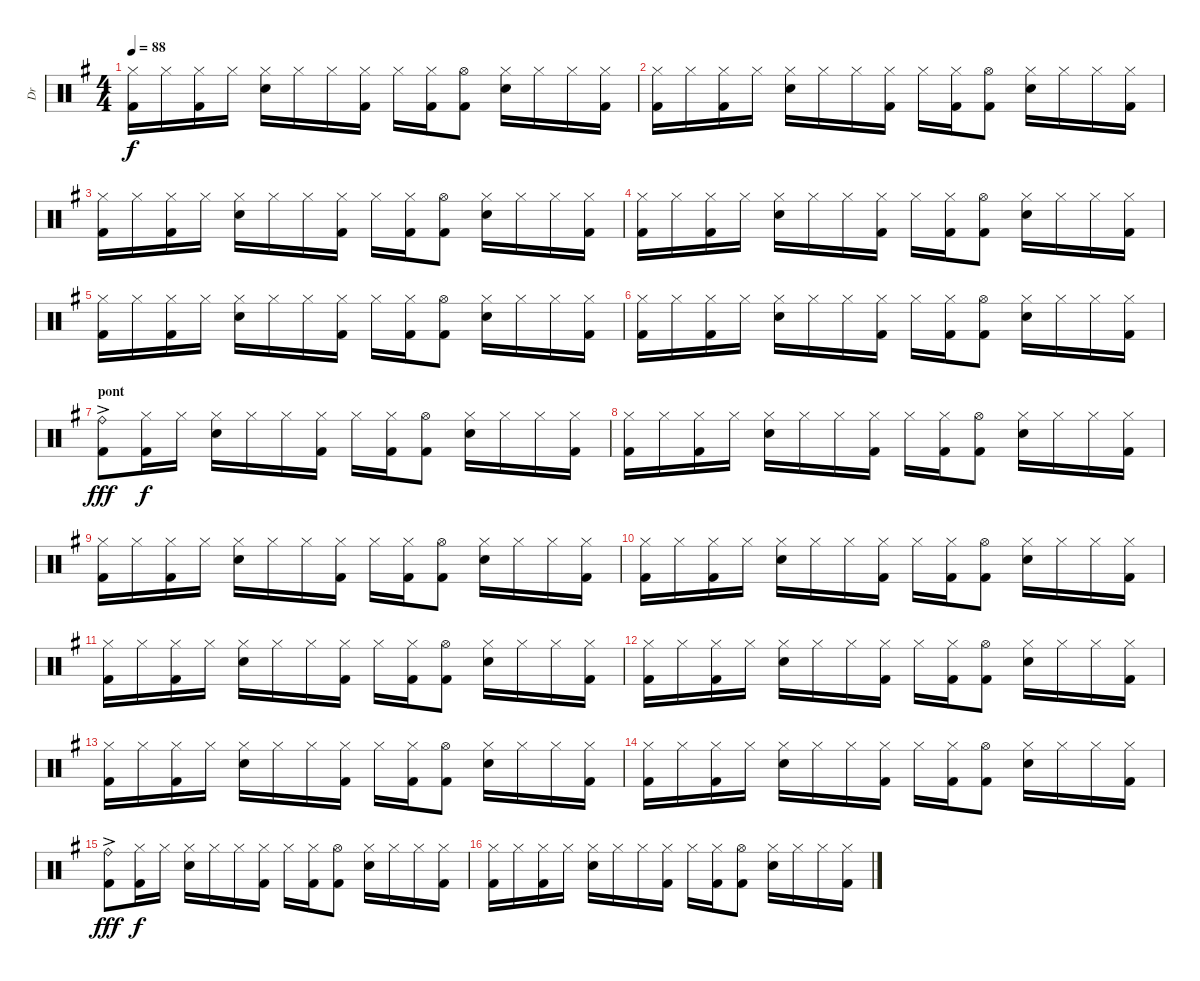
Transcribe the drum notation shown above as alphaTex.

\track ("Dr" "Dr") {instrument percussion}
\staff {score}
\articulation defaults
\ts (4 4)
\tempo 88
\clef neutral
\ks g
("Hi-Hat (closed)" "Kick (hit) 2").16{dy f} "Hi-Hat (closed)".16 ("Hi-Hat (closed)" "Kick (hit) 2").16 "Hi-Hat (closed)".16 ("Hi-Hat (closed)" "Electric Snare (hit)").16 "Hi-Hat (closed)".16 "Hi-Hat (closed)".16 ("Hi-Hat (closed)" "Kick (hit) 2").16 "Hi-Hat (closed)".16 ("Hi-Hat (closed)" "Kick (hit) 2").16 ("Hi-Hat (open)" "Kick (hit) 2").8 ("Hi-Hat (closed)" "Electric Snare (hit)").16 "Hi-Hat (closed)".16 "Hi-Hat (closed)".16 ("Hi-Hat (closed)" "Kick (hit) 2").16 |
("Hi-Hat (closed)" "Kick (hit) 2").16 "Hi-Hat (closed)".16 ("Hi-Hat (closed)" "Kick (hit) 2").16 "Hi-Hat (closed)".16 ("Hi-Hat (closed)" "Electric Snare (hit)").16 "Hi-Hat (closed)".16 "Hi-Hat (closed)".16 ("Hi-Hat (closed)" "Kick (hit) 2").16 "Hi-Hat (closed)".16 ("Hi-Hat (closed)" "Kick (hit) 2").16 ("Hi-Hat (open)" "Kick (hit) 2").8 ("Hi-Hat (closed)" "Electric Snare (hit)").16 "Hi-Hat (closed)".16 "Hi-Hat (closed)".16 ("Hi-Hat (closed)" "Kick (hit) 2").16 |
("Hi-Hat (closed)" "Kick (hit) 2").16 "Hi-Hat (closed)".16 ("Hi-Hat (closed)" "Kick (hit) 2").16 "Hi-Hat (closed)".16 ("Hi-Hat (closed)" "Electric Snare (hit)").16 "Hi-Hat (closed)".16 "Hi-Hat (closed)".16 ("Hi-Hat (closed)" "Kick (hit) 2").16 "Hi-Hat (closed)".16 ("Hi-Hat (closed)" "Kick (hit) 2").16 ("Hi-Hat (open)" "Kick (hit) 2").8 ("Hi-Hat (closed)" "Electric Snare (hit)").16 "Hi-Hat (closed)".16 "Hi-Hat (closed)".16 ("Hi-Hat (closed)" "Kick (hit) 2").16 |
("Hi-Hat (closed)" "Kick (hit) 2").16 "Hi-Hat (closed)".16 ("Hi-Hat (closed)" "Kick (hit) 2").16 "Hi-Hat (closed)".16 ("Hi-Hat (closed)" "Electric Snare (hit)").16 "Hi-Hat (closed)".16 "Hi-Hat (closed)".16 ("Hi-Hat (closed)" "Kick (hit) 2").16 "Hi-Hat (closed)".16 ("Hi-Hat (closed)" "Kick (hit) 2").16 ("Hi-Hat (open)" "Kick (hit) 2").8 ("Hi-Hat (closed)" "Electric Snare (hit)").16 "Hi-Hat (closed)".16 "Hi-Hat (closed)".16 ("Hi-Hat (closed)" "Kick (hit) 2").16 |
("Hi-Hat (closed)" "Kick (hit) 2").16 "Hi-Hat (closed)".16 ("Hi-Hat (closed)" "Kick (hit) 2").16 "Hi-Hat (closed)".16 ("Hi-Hat (closed)" "Electric Snare (hit)").16 "Hi-Hat (closed)".16 "Hi-Hat (closed)".16 ("Hi-Hat (closed)" "Kick (hit) 2").16 "Hi-Hat (closed)".16 ("Hi-Hat (closed)" "Kick (hit) 2").16 ("Hi-Hat (open)" "Kick (hit) 2").8 ("Hi-Hat (closed)" "Electric Snare (hit)").16 "Hi-Hat (closed)".16 "Hi-Hat (closed)".16 ("Hi-Hat (closed)" "Kick (hit) 2").16 |
("Hi-Hat (closed)" "Kick (hit) 2").16 "Hi-Hat (closed)".16 ("Hi-Hat (closed)" "Kick (hit) 2").16 "Hi-Hat (closed)".16 ("Hi-Hat (closed)" "Electric Snare (hit)").16 "Hi-Hat (closed)".16 "Hi-Hat (closed)".16 ("Hi-Hat (closed)" "Kick (hit) 2").16 "Hi-Hat (closed)".16 ("Hi-Hat (closed)" "Kick (hit) 2").16 ("Hi-Hat (open)" "Kick (hit) 2").8 ("Hi-Hat (closed)" "Electric Snare (hit)").16 "Hi-Hat (closed)".16 "Hi-Hat (closed)".16 ("Hi-Hat (closed)" "Kick (hit) 2").16 |
\section ("" "pont")
("Ride (bell)"{ac} "Kick (hit) 2"{ac}).8{dy fff} ("Hi-Hat (closed)" "Kick (hit) 2").16{dy f} "Hi-Hat (closed)".16 ("Hi-Hat (closed)" "Electric Snare (hit)").16 "Hi-Hat (closed)".16 "Hi-Hat (closed)".16 ("Hi-Hat (closed)" "Kick (hit) 2").16 "Hi-Hat (closed)".16 ("Hi-Hat (closed)" "Kick (hit) 2").16 ("Hi-Hat (open)" "Kick (hit) 2").8 ("Hi-Hat (closed)" "Electric Snare (hit)").16 "Hi-Hat (closed)".16 "Hi-Hat (closed)".16 ("Hi-Hat (closed)" "Kick (hit) 2").16 |
("Hi-Hat (closed)" "Kick (hit) 2").16 "Hi-Hat (closed)".16 ("Hi-Hat (closed)" "Kick (hit) 2").16 "Hi-Hat (closed)".16 ("Hi-Hat (closed)" "Electric Snare (hit)").16 "Hi-Hat (closed)".16 "Hi-Hat (closed)".16 ("Hi-Hat (closed)" "Kick (hit) 2").16 "Hi-Hat (closed)".16 ("Hi-Hat (closed)" "Kick (hit) 2").16 ("Hi-Hat (open)" "Kick (hit) 2").8 ("Hi-Hat (closed)" "Electric Snare (hit)").16 "Hi-Hat (closed)".16 "Hi-Hat (closed)".16 ("Hi-Hat (closed)" "Kick (hit) 2").16 |
("Hi-Hat (closed)" "Kick (hit) 2").16 "Hi-Hat (closed)".16 ("Hi-Hat (closed)" "Kick (hit) 2").16 "Hi-Hat (closed)".16 ("Hi-Hat (closed)" "Electric Snare (hit)").16 "Hi-Hat (closed)".16 "Hi-Hat (closed)".16 ("Hi-Hat (closed)" "Kick (hit) 2").16 "Hi-Hat (closed)".16 ("Hi-Hat (closed)" "Kick (hit) 2").16 ("Hi-Hat (open)" "Kick (hit) 2").8 ("Hi-Hat (closed)" "Electric Snare (hit)").16 "Hi-Hat (closed)".16 "Hi-Hat (closed)".16 ("Hi-Hat (closed)" "Kick (hit) 2").16 |
("Hi-Hat (closed)" "Kick (hit) 2").16 "Hi-Hat (closed)".16 ("Hi-Hat (closed)" "Kick (hit) 2").16 "Hi-Hat (closed)".16 ("Hi-Hat (closed)" "Electric Snare (hit)").16 "Hi-Hat (closed)".16 "Hi-Hat (closed)".16 ("Hi-Hat (closed)" "Kick (hit) 2").16 "Hi-Hat (closed)".16 ("Hi-Hat (closed)" "Kick (hit) 2").16 ("Hi-Hat (open)" "Kick (hit) 2").8 ("Hi-Hat (closed)" "Electric Snare (hit)").16 "Hi-Hat (closed)".16 "Hi-Hat (closed)".16 ("Hi-Hat (closed)" "Kick (hit) 2").16 |
("Hi-Hat (closed)" "Kick (hit) 2").16 "Hi-Hat (closed)".16 ("Hi-Hat (closed)" "Kick (hit) 2").16 "Hi-Hat (closed)".16 ("Hi-Hat (closed)" "Electric Snare (hit)").16 "Hi-Hat (closed)".16 "Hi-Hat (closed)".16 ("Hi-Hat (closed)" "Kick (hit) 2").16 "Hi-Hat (closed)".16 ("Hi-Hat (closed)" "Kick (hit) 2").16 ("Hi-Hat (open)" "Kick (hit) 2").8 ("Hi-Hat (closed)" "Electric Snare (hit)").16 "Hi-Hat (closed)".16 "Hi-Hat (closed)".16 ("Hi-Hat (closed)" "Kick (hit) 2").16 |
("Hi-Hat (closed)" "Kick (hit) 2").16 "Hi-Hat (closed)".16 ("Hi-Hat (closed)" "Kick (hit) 2").16 "Hi-Hat (closed)".16 ("Hi-Hat (closed)" "Electric Snare (hit)").16 "Hi-Hat (closed)".16 "Hi-Hat (closed)".16 ("Hi-Hat (closed)" "Kick (hit) 2").16 "Hi-Hat (closed)".16 ("Hi-Hat (closed)" "Kick (hit) 2").16 ("Hi-Hat (open)" "Kick (hit) 2").8 ("Hi-Hat (closed)" "Electric Snare (hit)").16 "Hi-Hat (closed)".16 "Hi-Hat (closed)".16 ("Hi-Hat (closed)" "Kick (hit) 2").16 |
("Hi-Hat (closed)" "Kick (hit) 2").16 "Hi-Hat (closed)".16 ("Hi-Hat (closed)" "Kick (hit) 2").16 "Hi-Hat (closed)".16 ("Hi-Hat (closed)" "Electric Snare (hit)").16 "Hi-Hat (closed)".16 "Hi-Hat (closed)".16 ("Hi-Hat (closed)" "Kick (hit) 2").16 "Hi-Hat (closed)".16 ("Hi-Hat (closed)" "Kick (hit) 2").16 ("Hi-Hat (open)" "Kick (hit) 2").8 ("Hi-Hat (closed)" "Electric Snare (hit)").16 "Hi-Hat (closed)".16 "Hi-Hat (closed)".16 ("Hi-Hat (closed)" "Kick (hit) 2").16 |
("Hi-Hat (closed)" "Kick (hit) 2").16 "Hi-Hat (closed)".16 ("Hi-Hat (closed)" "Kick (hit) 2").16 "Hi-Hat (closed)".16 ("Hi-Hat (closed)" "Electric Snare (hit)").16 "Hi-Hat (closed)".16 "Hi-Hat (closed)".16 ("Hi-Hat (closed)" "Kick (hit) 2").16 "Hi-Hat (closed)".16 ("Hi-Hat (closed)" "Kick (hit) 2").16 ("Hi-Hat (open)" "Kick (hit) 2").8 ("Hi-Hat (closed)" "Electric Snare (hit)").16 "Hi-Hat (closed)".16 "Hi-Hat (closed)".16 ("Hi-Hat (closed)" "Kick (hit) 2").16 |
("Ride (bell)"{ac} "Kick (hit) 2"{ac}).8{dy fff} ("Hi-Hat (closed)" "Kick (hit) 2").16{dy f} "Hi-Hat (closed)".16 ("Hi-Hat (closed)" "Electric Snare (hit)").16 "Hi-Hat (closed)".16 "Hi-Hat (closed)".16 ("Hi-Hat (closed)" "Kick (hit) 2").16 "Hi-Hat (closed)".16 ("Hi-Hat (closed)" "Kick (hit) 2").16 ("Hi-Hat (open)" "Kick (hit) 2").8 ("Hi-Hat (closed)" "Electric Snare (hit)").16 "Hi-Hat (closed)".16 "Hi-Hat (closed)".16 ("Hi-Hat (closed)" "Kick (hit) 2").16 |
("Hi-Hat (closed)" "Kick (hit) 2").16 "Hi-Hat (closed)".16 ("Hi-Hat (closed)" "Kick (hit) 2").16 "Hi-Hat (closed)".16 ("Hi-Hat (closed)" "Electric Snare (hit)").16 "Hi-Hat (closed)".16 "Hi-Hat (closed)".16 ("Hi-Hat (closed)" "Kick (hit) 2").16 "Hi-Hat (closed)".16 ("Hi-Hat (closed)" "Kick (hit) 2").16 ("Hi-Hat (open)" "Kick (hit) 2").8 ("Hi-Hat (closed)" "Electric Snare (hit)").16 "Hi-Hat (closed)".16 "Hi-Hat (closed)".16 ("Hi-Hat (closed)" "Kick (hit) 2").16
